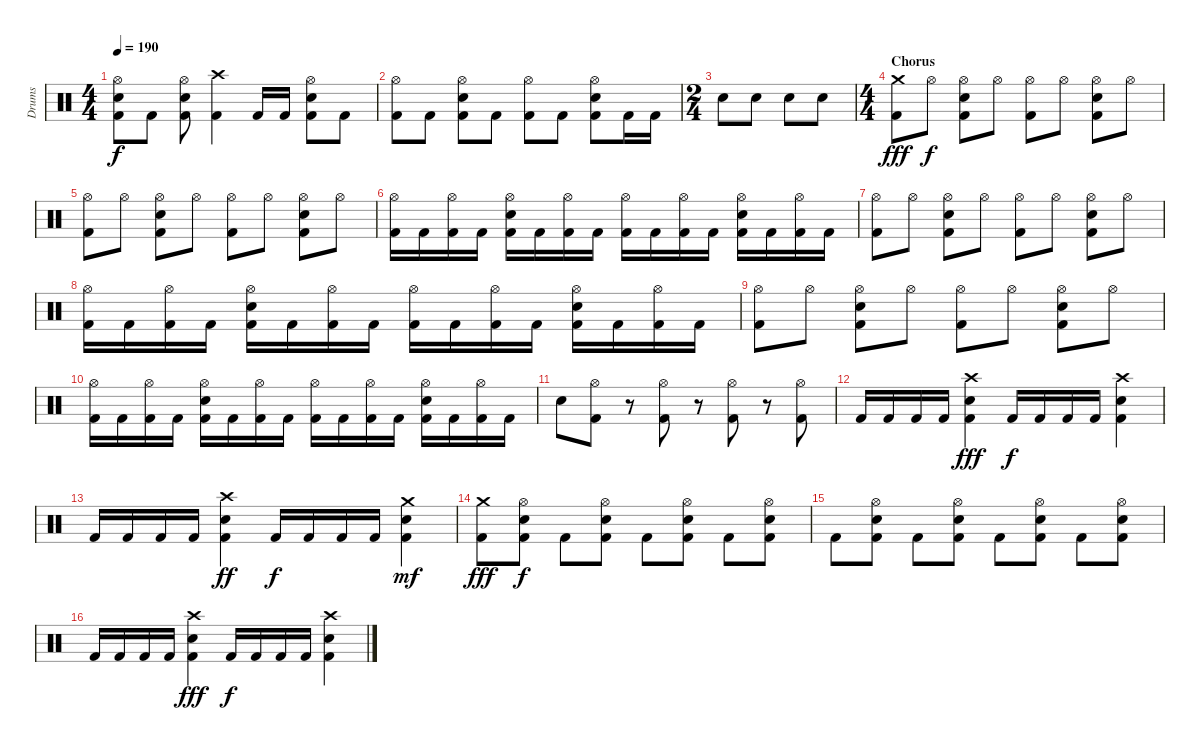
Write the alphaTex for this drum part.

\track ("Drums" "Drums") {instrument percussion}
\staff {score}
\articulation defaults
\ts (4 4)
\tempo 190
\clef neutral
\ks c
("Hi-Hat (open)" "Snare (hit) 2" "Kick (hit) 2").8{dy f} "Kick (hit) 2".8 ("Hi-Hat (open)" "Snare (hit) 2" "Kick (hit) 2").8 ("Crash high (hit)" "Kick (hit) 2").4 "Kick (hit) 2".16 "Kick (hit) 2".16 ("Hi-Hat (open)" "Snare (hit) 2" "Kick (hit) 2").8 "Kick (hit) 2".8 |
("Hi-Hat (open)" "Kick (hit) 2").8 "Kick (hit) 2".8 ("Hi-Hat (open)" "Snare (hit) 2" "Kick (hit) 2").8 "Kick (hit) 2".8 ("Hi-Hat (open)" "Kick (hit) 2").8 "Kick (hit) 2".8 ("Hi-Hat (open)" "Snare (hit) 2" "Kick (hit) 2").8 "Kick (hit) 2".16 "Kick (hit) 2".16 |
\ts (2 4)
"Snare (hit) 2".8 "Snare (hit) 2".8 "Snare (hit) 2".8 "Snare (hit) 2".8 |
\ts (4 4)
\section ("" "Chorus")
("Crash medium (hit)" "Kick (hit) 2").8{dy fff} "Hi-Hat (open)".8{dy f} ("Hi-Hat (open)" "Snare (hit) 2" "Kick (hit) 2").8 "Hi-Hat (open)".8 ("Hi-Hat (open)" "Kick (hit) 2").8 "Hi-Hat (open)".8 ("Hi-Hat (open)" "Snare (hit) 2" "Kick (hit) 2").8 "Hi-Hat (open)".8 |
("Hi-Hat (open)" "Kick (hit) 2").8 "Hi-Hat (open)".8 ("Hi-Hat (open)" "Snare (hit) 2" "Kick (hit) 2").8 "Hi-Hat (open)".8 ("Hi-Hat (open)" "Kick (hit) 2").8 "Hi-Hat (open)".8 ("Hi-Hat (open)" "Snare (hit) 2" "Kick (hit) 2").8 "Hi-Hat (open)".8 |
("Hi-Hat (open)" "Kick (hit) 2").16 "Kick (hit) 2".16 ("Hi-Hat (open)" "Kick (hit) 2").16 "Kick (hit) 2".16 ("Hi-Hat (open)" "Snare (hit) 2" "Kick (hit) 2").16 "Kick (hit) 2".16 ("Hi-Hat (open)" "Kick (hit) 2").16 "Kick (hit) 2".16 ("Hi-Hat (open)" "Kick (hit) 2").16 "Kick (hit) 2".16 ("Hi-Hat (open)" "Kick (hit) 2").16 "Kick (hit) 2".16 ("Hi-Hat (open)" "Snare (hit) 2" "Kick (hit) 2").16 "Kick (hit) 2".16 ("Hi-Hat (open)" "Kick (hit) 2").16 "Kick (hit) 2".16 |
("Hi-Hat (open)" "Kick (hit) 2").8 "Hi-Hat (open)".8 ("Hi-Hat (open)" "Snare (hit) 2" "Kick (hit) 2").8 "Hi-Hat (open)".8 ("Hi-Hat (open)" "Kick (hit) 2").8 "Hi-Hat (open)".8 ("Hi-Hat (open)" "Snare (hit) 2" "Kick (hit) 2").8 "Hi-Hat (open)".8 |
("Hi-Hat (open)" "Kick (hit) 2").16 "Kick (hit) 2".16 ("Hi-Hat (open)" "Kick (hit) 2").16 "Kick (hit) 2".16 ("Hi-Hat (open)" "Snare (hit) 2" "Kick (hit) 2").16 "Kick (hit) 2".16 ("Hi-Hat (open)" "Kick (hit) 2").16 "Kick (hit) 2".16 ("Hi-Hat (open)" "Kick (hit) 2").16 "Kick (hit) 2".16 ("Hi-Hat (open)" "Kick (hit) 2").16 "Kick (hit) 2".16 ("Hi-Hat (open)" "Snare (hit) 2" "Kick (hit) 2").16 "Kick (hit) 2".16 ("Hi-Hat (open)" "Kick (hit) 2").16 "Kick (hit) 2".16 |
("Hi-Hat (open)" "Kick (hit) 2").8 "Hi-Hat (open)".8 ("Hi-Hat (open)" "Snare (hit) 2" "Kick (hit) 2").8 "Hi-Hat (open)".8 ("Hi-Hat (open)" "Kick (hit) 2").8 "Hi-Hat (open)".8 ("Hi-Hat (open)" "Snare (hit) 2" "Kick (hit) 2").8 "Hi-Hat (open)".8 |
("Hi-Hat (open)" "Kick (hit) 2").16 "Kick (hit) 2".16 ("Hi-Hat (open)" "Kick (hit) 2").16 "Kick (hit) 2".16 ("Hi-Hat (open)" "Snare (hit) 2" "Kick (hit) 2").16 "Kick (hit) 2".16 ("Hi-Hat (open)" "Kick (hit) 2").16 "Kick (hit) 2".16 ("Hi-Hat (open)" "Kick (hit) 2").16 "Kick (hit) 2".16 ("Hi-Hat (open)" "Kick (hit) 2").16 "Kick (hit) 2".16 ("Hi-Hat (open)" "Snare (hit) 2" "Kick (hit) 2").16 "Kick (hit) 2".16 ("Hi-Hat (open)" "Kick (hit) 2").16 "Kick (hit) 2".16 |
"Snare (hit) 2".8 ("Hi-Hat (open)" "Kick (hit) 2").8 r.8 ("Hi-Hat (open)" "Kick (hit) 2").8 r.8 ("Hi-Hat (open)" "Kick (hit) 2").8 r.8 ("Hi-Hat (open)" "Kick (hit) 2").8 |
"Kick (hit) 2".16 "Kick (hit) 2".16 "Kick (hit) 2".16 "Kick (hit) 2".16 ("Crash high (hit)" "Snare (hit) 2" "Kick (hit) 2").4{dy fff} "Kick (hit) 2".16{dy f} "Kick (hit) 2".16 "Kick (hit) 2".16 "Kick (hit) 2".16 ("Crash high (hit)" "Snare (hit) 2" "Kick (hit) 2").4 |
"Kick (hit) 2".16 "Kick (hit) 2".16 "Kick (hit) 2".16 "Kick (hit) 2".16 ("Crash high (hit)" "Snare (hit) 2" "Kick (hit) 2").4{dy ff} "Kick (hit) 2".16{dy f} "Kick (hit) 2".16 "Kick (hit) 2".16 "Kick (hit) 2".16 ("Crash medium (hit)" "Snare (hit) 2" "Kick (hit) 2").4{dy mf} |
("Crash medium (hit)" "Kick (hit) 2").8{dy fff} ("Hi-Hat (open)" "Snare (hit) 2" "Kick (hit) 2").8{dy f} "Kick (hit) 2".8 ("Hi-Hat (open)" "Snare (hit) 2" "Kick (hit) 2").8 "Kick (hit) 2".8 ("Hi-Hat (open)" "Snare (hit) 2" "Kick (hit) 2").8 "Kick (hit) 2".8 ("Hi-Hat (open)" "Snare (hit) 2" "Kick (hit) 2").8 |
"Kick (hit) 2".8 ("Hi-Hat (open)" "Snare (hit) 2" "Kick (hit) 2").8 "Kick (hit) 2".8 ("Hi-Hat (open)" "Snare (hit) 2" "Kick (hit) 2").8 "Kick (hit) 2".8 ("Hi-Hat (open)" "Snare (hit) 2" "Kick (hit) 2").8 "Kick (hit) 2".8 ("Hi-Hat (open)" "Snare (hit) 2" "Kick (hit) 2").8 |
"Kick (hit) 2".16 "Kick (hit) 2".16 "Kick (hit) 2".16 "Kick (hit) 2".16 ("Crash high (hit)" "Snare (hit) 2" "Kick (hit) 2").4{dy fff} "Kick (hit) 2".16{dy f} "Kick (hit) 2".16 "Kick (hit) 2".16 "Kick (hit) 2".16 ("Crash high (hit)" "Snare (hit) 2" "Kick (hit) 2").4
